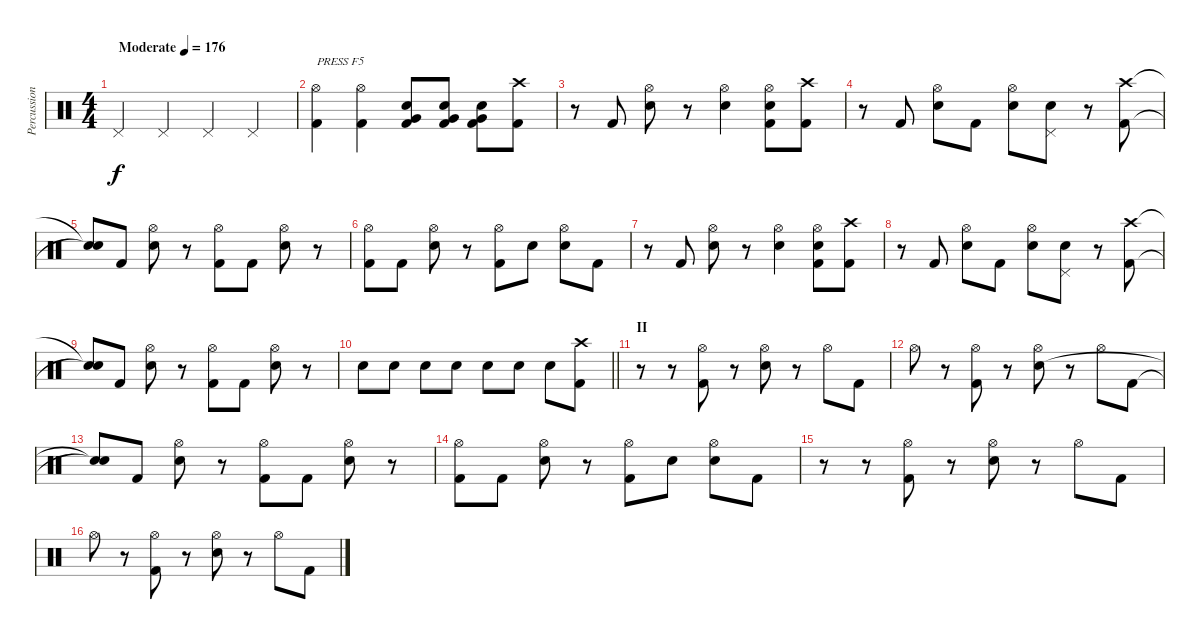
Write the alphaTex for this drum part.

\track ("Percussion" "Percussion") {instrument percussion}
\staff {score}
\articulation defaults
\ts (4 4)
\tempo (176 "Moderate")
\clef neutral
\ks c "Pedal Hi-Hat (hit)".4{dy f} "Pedal Hi-Hat (hit)".4 "Pedal Hi-Hat (hit)".4 "Pedal Hi-Hat (hit)".4
|
("Hi-Hat (open)" "Kick (hit) 2").4{txt "PRESS F5"} ("Hi-Hat (open)" "Kick (hit) 2").4 ("Very Low Tom (hit)" "Electric Snare (hit)" "Kick (hit) 2").8 ("Very Low Tom (hit)" "Electric Snare (hit)" "Kick (hit) 2").8 ("Very Low Tom (hit)" "Electric Snare (hit)" "Kick (hit) 2").8 ("Crash high (hit)" "Kick (hit) 2").8 |
r.8 "Kick (hit) 2".8 ("Hi-Hat (open)" "Electric Snare (hit)").8 r.8 ("Hi-Hat (open)" "Electric Snare (hit)").4 ("Hi-Hat (open)" "Electric Snare (hit)" "Kick (hit) 2").8 ("Crash high (hit)" "Kick (hit) 2").8 |
r.8 "Kick (hit) 2".8 ("Hi-Hat (open)" "Electric Snare (hit)").8 "Kick (hit) 2".8 ("Hi-Hat (open)" "Electric Snare (hit)").8 ("Pedal Hi-Hat (hit)" "Electric Snare (hit)").8 r.8 ("Crash high (hit)" "Kick (hit) 2").8 |
("Snare (hit)"{t} "Snare (hit)"{t}).8 "Kick (hit) 2".8 ("Hi-Hat (open)" "Electric Snare (hit)").8 r.8 ("Hi-Hat (open)" "Kick (hit) 2").8 "Kick (hit) 2".8 ("Hi-Hat (open)" "Electric Snare (hit)").8 r.8 |
("Hi-Hat (open)" "Kick (hit) 2").8 "Kick (hit) 2".8 ("Hi-Hat (open)" "Electric Snare (hit)").8 r.8 ("Hi-Hat (open)" "Kick (hit) 2").8 "Electric Snare (hit)".8 ("Hi-Hat (open)" "Electric Snare (hit)").8 "Kick (hit) 2".8 |
r.8 "Kick (hit) 2".8 ("Hi-Hat (open)" "Electric Snare (hit)").8 r.8 ("Hi-Hat (open)" "Electric Snare (hit)").4 ("Hi-Hat (open)" "Electric Snare (hit)" "Kick (hit) 2").8 ("Crash high (hit)" "Kick (hit) 2").8 |
r.8 "Kick (hit) 2".8 ("Hi-Hat (open)" "Electric Snare (hit)").8 "Kick (hit) 2".8 ("Hi-Hat (open)" "Electric Snare (hit)").8 ("Pedal Hi-Hat (hit)" "Electric Snare (hit)").8 r.8 ("Crash high (hit)" "Kick (hit) 2").8 |
("Snare (hit)"{t} "Snare (hit)"{t}).8 "Kick (hit) 2".8 ("Hi-Hat (open)" "Electric Snare (hit)").8 r.8 ("Hi-Hat (open)" "Kick (hit) 2").8 "Kick (hit) 2".8 ("Hi-Hat (open)" "Electric Snare (hit)").8 r.8 |
\barLineRight lightlight "Electric Snare (hit)".8 "Electric Snare (hit)".8 "Electric Snare (hit)".8 "Electric Snare (hit)".8 "Electric Snare (hit)".8 "Electric Snare (hit)".8 "Electric Snare (hit)".8
("Crash high (hit)" "Kick (hit) 2").8 |
\section ("" "II")
r.8 r.8 ("Hi-Hat (open)" "Kick (hit) 2").8 r.8 ("Hi-Hat (open)" "Electric Snare (hit)").8 r.8 "Hi-Hat (open)".8 "Kick (hit) 2".8 |
"Hi-Hat (open)".8 r.8 ("Hi-Hat (open)" "Kick (hit) 2").8 r.8 ("Hi-Hat (open)" "Electric Snare (hit)").8 r.8 "Hi-Hat (open)".8 "Kick (hit) 2".8 |
("Snare (hit)"{t} "Snare (hit)"{t}).8 "Kick (hit) 2".8 ("Hi-Hat (open)" "Electric Snare (hit)").8 r.8 ("Hi-Hat (open)" "Kick (hit) 2").8 "Kick (hit) 2".8 ("Hi-Hat (open)" "Electric Snare (hit)").8 r.8 |
("Hi-Hat (open)" "Kick (hit) 2").8 "Kick (hit) 2".8 ("Hi-Hat (open)" "Electric Snare (hit)").8 r.8 ("Hi-Hat (open)" "Kick (hit) 2").8 "Electric Snare (hit)".8 ("Hi-Hat (open)" "Electric Snare (hit)").8 "Kick (hit) 2".8 |
r.8 r.8 ("Hi-Hat (open)" "Kick (hit) 2").8 r.8 ("Hi-Hat (open)" "Electric Snare (hit)").8 r.8 "Hi-Hat (open)".8 "Kick (hit) 2".8 |
"Hi-Hat (open)".8 r.8 ("Hi-Hat (open)" "Kick (hit) 2").8 r.8 ("Hi-Hat (open)" "Electric Snare (hit)").8 r.8 "Hi-Hat (open)".8 "Kick (hit) 2".8
